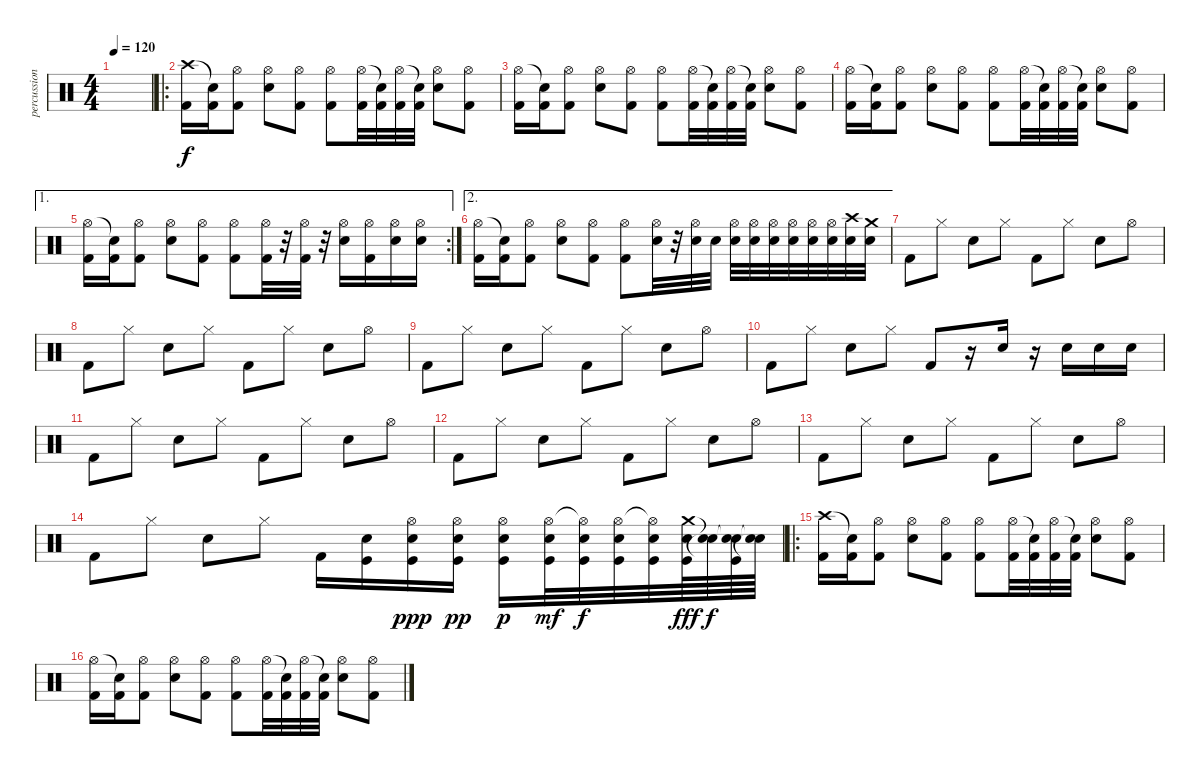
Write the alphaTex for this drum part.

\track ("percussions" "percussion") {instrument percussion}
\staff {score}
\articulation defaults
\ts (4 4)
\tempo 120
\clef neutral
\ks c
|
\ro
("Crash high (hit)" "Kick (hit) 2").16 ("Snare (hit)"{t} "Kick (hit) 2").16 ("Hi-Hat (open)" "Kick (hit) 2").8 ("Hi-Hat (open)" "Electric Snare (hit)").8 ("Hi-Hat (open)" "Kick (hit) 2").8 ("Hi-Hat (open)" "Kick (hit) 2").8 ("Hi-Hat (open)" "Kick (hit) 2").32 ("Snare (hit)"{t} "Kick (hit) 2").32 ("Hi-Hat (open)" "Kick (hit) 2").32 ("Snare (hit)"{t} "Kick (hit) 2").32 ("Hi-Hat (open)" "Electric Snare (hit)").8 ("Hi-Hat (open)" "Kick (hit) 2").8 |
("Hi-Hat (open)" "Kick (hit) 2").16 ("Snare (hit)"{t} "Kick (hit) 2").16 ("Hi-Hat (open)" "Kick (hit) 2").8 ("Hi-Hat (open)" "Electric Snare (hit)").8 ("Hi-Hat (open)" "Kick (hit) 2").8 ("Hi-Hat (open)" "Kick (hit) 2").8 ("Hi-Hat (open)" "Kick (hit) 2").32 ("Snare (hit)"{t} "Kick (hit) 2").32 ("Hi-Hat (open)" "Kick (hit) 2").32 ("Snare (hit)"{t} "Kick (hit) 2").32 ("Hi-Hat (open)" "Electric Snare (hit)").8 ("Hi-Hat (open)" "Kick (hit) 2").8 |
("Hi-Hat (open)" "Kick (hit) 2").16 ("Snare (hit)"{t} "Kick (hit) 2").16 ("Hi-Hat (open)" "Kick (hit) 2").8 ("Hi-Hat (open)" "Electric Snare (hit)").8 ("Hi-Hat (open)" "Kick (hit) 2").8 ("Hi-Hat (open)" "Kick (hit) 2").8 ("Hi-Hat (open)" "Kick (hit) 2").32 ("Snare (hit)"{t} "Kick (hit) 2").32 ("Hi-Hat (open)" "Kick (hit) 2").32 ("Snare (hit)"{t} "Kick (hit) 2").32 ("Hi-Hat (open)" "Electric Snare (hit)").8 ("Hi-Hat (open)" "Kick (hit) 2").8 |
\ae 1
\rc 2
("Hi-Hat (open)" "Kick (hit) 2").16 ("Snare (hit)"{t} "Kick (hit) 2").16 ("Hi-Hat (open)" "Kick (hit) 2").8 ("Hi-Hat (open)" "Electric Snare (hit)").8 ("Hi-Hat (open)" "Kick (hit) 2").8 ("Hi-Hat (open)" "Kick (hit) 2").8 ("Hi-Hat (open)" "Kick (hit) 2").32 r.32 ("Hi-Hat (open)" "Kick (hit) 2").32 r.32 ("Hi-Hat (open)" "Electric Snare (hit)").16 ("Hi-Hat (open)" "Kick (hit) 2").16 ("Hi-Hat (open)" "Electric Snare (hit)").16 ("Hi-Hat (open)" "Electric Snare (hit)").16 |
\ae 2
("Hi-Hat (open)" "Kick (hit) 2").16 ("Snare (hit)"{t} "Kick (hit) 2").16 ("Hi-Hat (open)" "Kick (hit) 2").8 ("Hi-Hat (open)" "Electric Snare (hit)").8 ("Hi-Hat (open)" "Kick (hit) 2").8 ("Hi-Hat (open)" "Kick (hit) 2").8 ("Hi-Hat (open)" "Electric Snare (hit)").32 r.32 ("Hi-Hat (open)" "Electric Snare (hit)").32 "Electric Snare (hit)".32 ("Hi-Hat (open)" "Electric Snare (hit)").32 ("Hi-Hat (open)" "Electric Snare (hit)").32 ("Hi-Hat (open)" "Electric Snare (hit)").32 ("Hi-Hat (open)" "Electric Snare (hit)").32 ("Hi-Hat (open)" "Electric Snare (hit)").32 ("Hi-Hat (open)" "Electric Snare (hit)").32 ("Crash high (hit)" "Electric Snare (hit)").32 ("Crash medium (hit)" "Electric Snare (hit)").32 |
"Kick (hit) 2".8 "Hi-Hat (closed)".8 "Electric Snare (hit)".8 "Hi-Hat (closed)".8 "Kick (hit) 2".8 "Hi-Hat (closed)".8 "Electric Snare (hit)".8 "Hi-Hat (open)".8 |
"Kick (hit) 2".8 "Hi-Hat (closed)".8 "Electric Snare (hit)".8 "Hi-Hat (closed)".8 "Kick (hit) 2".8 "Hi-Hat (closed)".8 "Electric Snare (hit)".8 "Hi-Hat (open)".8 |
"Kick (hit) 2".8 "Hi-Hat (closed)".8 "Electric Snare (hit)".8 "Hi-Hat (closed)".8 "Kick (hit) 2".8 "Hi-Hat (closed)".8 "Electric Snare (hit)".8 "Hi-Hat (open)".8 |
"Kick (hit) 2".8 "Hi-Hat (closed)".8 "Electric Snare (hit)".8 "Hi-Hat (closed)".8 "Kick (hit) 2".8 r.16 "Electric Snare (hit)".16 r.16 "Electric Snare (hit)".16 "Electric Snare (hit)".16 "Electric Snare (hit)".16 |
"Kick (hit) 2".8 "Hi-Hat (closed)".8 "Electric Snare (hit)".8 "Hi-Hat (closed)".8 "Kick (hit) 2".8 "Hi-Hat (closed)".8 "Electric Snare (hit)".8 "Hi-Hat (open)".8 |
"Kick (hit) 2".8 "Hi-Hat (closed)".8 "Electric Snare (hit)".8 "Hi-Hat (closed)".8 "Kick (hit) 2".8 "Hi-Hat (closed)".8 "Electric Snare (hit)".8 "Hi-Hat (open)".8 |
"Kick (hit) 2".8 "Hi-Hat (closed)".8 "Electric Snare (hit)".8 "Hi-Hat (closed)".8 "Kick (hit) 2".8 "Hi-Hat (closed)".8 "Electric Snare (hit)".8 "Hi-Hat (open)".8 |
"Kick (hit) 2".8 "Hi-Hat (closed)".8 "Electric Snare (hit)".8 "Hi-Hat (closed)".8 "Kick (hit) 2".16 ("Kick (hit)" "Electric Snare (hit)").16 ("Hi-Hat (open)" "Kick (hit)" "Electric Snare (hit)").16{dy ppp} ("Hi-Hat (open)" "Kick (hit)" "Electric Snare (hit)").16{dy pp} ("Hi-Hat (open)" "Kick (hit)" "Electric Snare (hit)").16{dy p} ("Hi-Hat (open)" "Kick (hit)" "Electric Snare (hit)").32{dy mf} ("Hi-Hat (open)"{t} "Kick (hit)" "Electric Snare (hit)").32{dy f} ("Hi-Hat (open)" "Kick (hit)" "Electric Snare (hit)").32 ("Hi-Hat (open)"{t} "Kick (hit)" "Electric Snare (hit)").32 ("Crash medium (hit)" "Kick (hit)" "Electric Snare (hit)").64{dy fff} ("Snare (hit)"{t} "Electric Snare (hit)"{t}).64{dy f} ("Snare (hit)"{t} "Kick (hit)" "Electric Snare (hit)").64 ("Snare (hit)"{t} "Electric Snare (hit)"{t}).64 |
\ro
("Crash high (hit)" "Kick (hit) 2").16 ("Snare (hit)"{t} "Kick (hit) 2").16 ("Hi-Hat (open)" "Kick (hit) 2").8 ("Hi-Hat (open)" "Electric Snare (hit)").8 ("Hi-Hat (open)" "Kick (hit) 2").8 ("Hi-Hat (open)" "Kick (hit) 2").8 ("Hi-Hat (open)" "Kick (hit) 2").32 ("Snare (hit)"{t} "Kick (hit) 2").32 ("Hi-Hat (open)" "Kick (hit) 2").32 ("Snare (hit)"{t} "Kick (hit) 2").32 ("Hi-Hat (open)" "Electric Snare (hit)").8 ("Hi-Hat (open)" "Kick (hit) 2").8 |
("Hi-Hat (open)" "Kick (hit) 2").16 ("Snare (hit)"{t} "Kick (hit) 2").16 ("Hi-Hat (open)" "Kick (hit) 2").8 ("Hi-Hat (open)" "Electric Snare (hit)").8 ("Hi-Hat (open)" "Kick (hit) 2").8 ("Hi-Hat (open)" "Kick (hit) 2").8 ("Hi-Hat (open)" "Kick (hit) 2").32 ("Snare (hit)"{t} "Kick (hit) 2").32 ("Hi-Hat (open)" "Kick (hit) 2").32 ("Snare (hit)"{t} "Kick (hit) 2").32 ("Hi-Hat (open)" "Electric Snare (hit)").8 ("Hi-Hat (open)" "Kick (hit) 2").8
